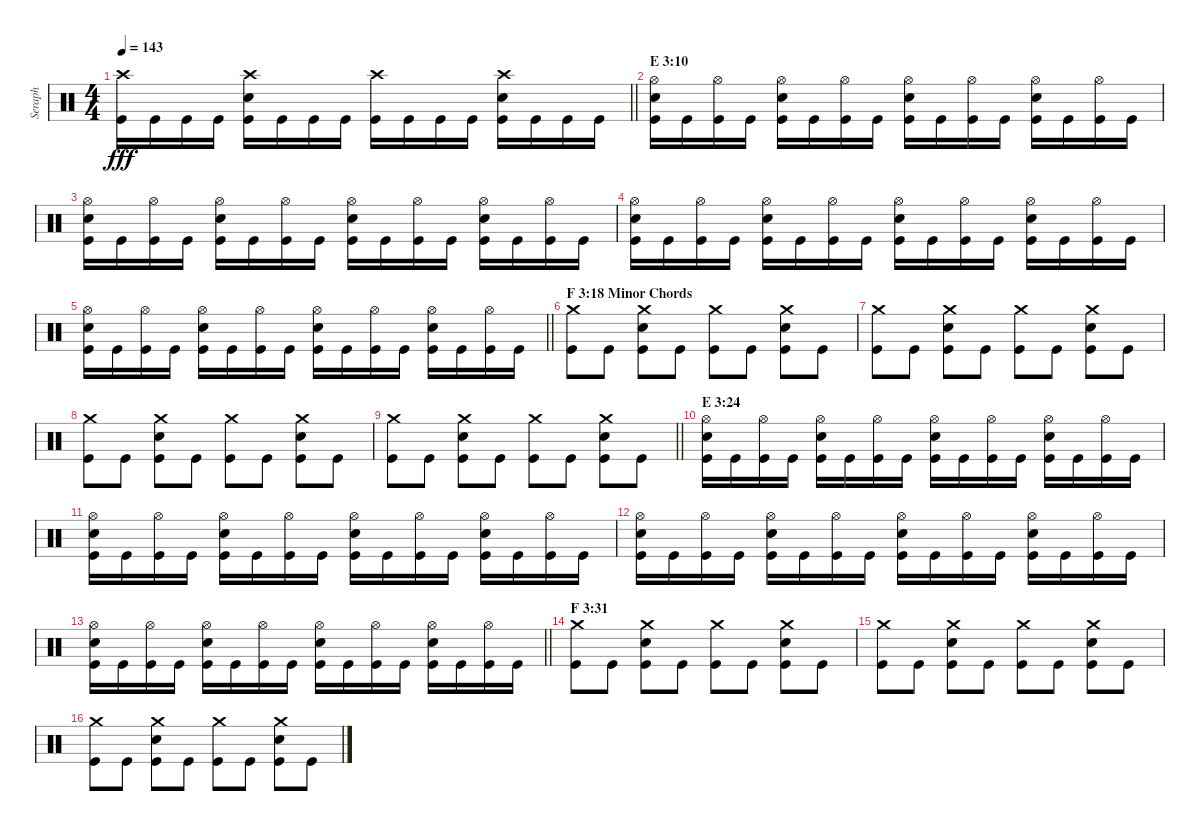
\track ("Seraph" "Seraph") {instrument percussion}
\staff {score}
\articulation defaults
\ts (4 4)
\tempo 143
\clef neutral
\barLineRight lightlight
\ks c
("Crash high (hit)" "Kick (hit)").16{dy fff} "Kick (hit)".16 "Kick (hit)".16 "Kick (hit)".16 ("Crash high (hit)" "Electric Snare (hit)" "Kick (hit)").16 "Kick (hit)".16 "Kick (hit)".16 "Kick (hit)".16 ("Crash high (hit)" "Kick (hit)").16 "Kick (hit)".16 "Kick (hit)".16 "Kick (hit)".16 ("Crash high (hit)" "Electric Snare (hit)" "Kick (hit)").16 "Kick (hit)".16 "Kick (hit)".16 "Kick (hit)".16 |
\section ("" "E 3:10")
("Hi-Hat (open)" "Electric Snare (hit)" "Kick (hit)").16 "Kick (hit)".16 ("Hi-Hat (open)" "Kick (hit)").16 "Kick (hit)".16 ("Hi-Hat (open)" "Electric Snare (hit)" "Kick (hit)").16 "Kick (hit)".16 ("Hi-Hat (open)" "Kick (hit)").16 "Kick (hit)".16 ("Hi-Hat (open)" "Electric Snare (hit)" "Kick (hit)").16 "Kick (hit)".16 ("Hi-Hat (open)" "Kick (hit)").16 "Kick (hit)".16 ("Hi-Hat (open)" "Electric Snare (hit)" "Kick (hit)").16 "Kick (hit)".16 ("Hi-Hat (open)" "Kick (hit)").16 "Kick (hit)".16 |
("Hi-Hat (open)" "Electric Snare (hit)" "Kick (hit)").16 "Kick (hit)".16 ("Hi-Hat (open)" "Kick (hit)").16 "Kick (hit)".16 ("Hi-Hat (open)" "Electric Snare (hit)" "Kick (hit)").16 "Kick (hit)".16 ("Hi-Hat (open)" "Kick (hit)").16 "Kick (hit)".16 ("Hi-Hat (open)" "Electric Snare (hit)" "Kick (hit)").16 "Kick (hit)".16 ("Hi-Hat (open)" "Kick (hit)").16 "Kick (hit)".16 ("Hi-Hat (open)" "Electric Snare (hit)" "Kick (hit)").16 "Kick (hit)".16 ("Hi-Hat (open)" "Kick (hit)").16 "Kick (hit)".16 |
("Hi-Hat (open)" "Electric Snare (hit)" "Kick (hit)").16 "Kick (hit)".16 ("Hi-Hat (open)" "Kick (hit)").16 "Kick (hit)".16 ("Hi-Hat (open)" "Electric Snare (hit)" "Kick (hit)").16 "Kick (hit)".16 ("Hi-Hat (open)" "Kick (hit)").16 "Kick (hit)".16 ("Hi-Hat (open)" "Electric Snare (hit)" "Kick (hit)").16 "Kick (hit)".16 ("Hi-Hat (open)" "Kick (hit)").16 "Kick (hit)".16 ("Hi-Hat (open)" "Electric Snare (hit)" "Kick (hit)").16 "Kick (hit)".16 ("Hi-Hat (open)" "Kick (hit)").16 "Kick (hit)".16 |
\barLineRight lightlight
("Hi-Hat (open)" "Electric Snare (hit)" "Kick (hit)").16 "Kick (hit)".16 ("Hi-Hat (open)" "Kick (hit)").16 "Kick (hit)".16 ("Hi-Hat (open)" "Electric Snare (hit)" "Kick (hit)").16 "Kick (hit)".16 ("Hi-Hat (open)" "Kick (hit)").16 "Kick (hit)".16 ("Hi-Hat (open)" "Electric Snare (hit)" "Kick (hit)").16 "Kick (hit)".16 ("Hi-Hat (open)" "Kick (hit)").16 "Kick (hit)".16 ("Hi-Hat (open)" "Electric Snare (hit)" "Kick (hit)").16 "Kick (hit)".16 ("Hi-Hat (open)" "Kick (hit)").16 "Kick (hit)".16 |
\section ("" "F 3:18 Minor Chords")
("Crash medium (hit)" "Kick (hit)").8 "Kick (hit)".8 ("Crash medium (hit)" "Electric Snare (hit)" "Kick (hit)").8 "Kick (hit)".8 ("Crash medium (hit)" "Kick (hit)").8 "Kick (hit)".8 ("Crash medium (hit)" "Electric Snare (hit)" "Kick (hit)").8 "Kick (hit)".8 |
("Crash medium (hit)" "Kick (hit)").8 "Kick (hit)".8 ("Crash medium (hit)" "Electric Snare (hit)" "Kick (hit)").8 "Kick (hit)".8 ("Crash medium (hit)" "Kick (hit)").8 "Kick (hit)".8 ("Crash medium (hit)" "Electric Snare (hit)" "Kick (hit)").8 "Kick (hit)".8 |
("Crash medium (hit)" "Kick (hit)").8 "Kick (hit)".8 ("Crash medium (hit)" "Electric Snare (hit)" "Kick (hit)").8 "Kick (hit)".8 ("Crash medium (hit)" "Kick (hit)").8 "Kick (hit)".8 ("Crash medium (hit)" "Electric Snare (hit)" "Kick (hit)").8 "Kick (hit)".8 |
\barLineRight lightlight
("Crash medium (hit)" "Kick (hit)").8 "Kick (hit)".8 ("Crash medium (hit)" "Electric Snare (hit)" "Kick (hit)").8 "Kick (hit)".8 ("Crash medium (hit)" "Kick (hit)").8 "Kick (hit)".8 ("Crash medium (hit)" "Electric Snare (hit)" "Kick (hit)").8 "Kick (hit)".8 |
\section ("" "E 3:24")
("Hi-Hat (open)" "Electric Snare (hit)" "Kick (hit)").16 "Kick (hit)".16 ("Hi-Hat (open)" "Kick (hit)").16 "Kick (hit)".16 ("Hi-Hat (open)" "Electric Snare (hit)" "Kick (hit)").16 "Kick (hit)".16 ("Hi-Hat (open)" "Kick (hit)").16 "Kick (hit)".16 ("Hi-Hat (open)" "Electric Snare (hit)" "Kick (hit)").16 "Kick (hit)".16 ("Hi-Hat (open)" "Kick (hit)").16 "Kick (hit)".16 ("Hi-Hat (open)" "Electric Snare (hit)" "Kick (hit)").16 "Kick (hit)".16 ("Hi-Hat (open)" "Kick (hit)").16 "Kick (hit)".16 |
("Hi-Hat (open)" "Electric Snare (hit)" "Kick (hit)").16 "Kick (hit)".16 ("Hi-Hat (open)" "Kick (hit)").16 "Kick (hit)".16 ("Hi-Hat (open)" "Electric Snare (hit)" "Kick (hit)").16 "Kick (hit)".16 ("Hi-Hat (open)" "Kick (hit)").16 "Kick (hit)".16 ("Hi-Hat (open)" "Electric Snare (hit)" "Kick (hit)").16 "Kick (hit)".16 ("Hi-Hat (open)" "Kick (hit)").16 "Kick (hit)".16 ("Hi-Hat (open)" "Electric Snare (hit)" "Kick (hit)").16 "Kick (hit)".16 ("Hi-Hat (open)" "Kick (hit)").16 "Kick (hit)".16 |
("Hi-Hat (open)" "Electric Snare (hit)" "Kick (hit)").16 "Kick (hit)".16 ("Hi-Hat (open)" "Kick (hit)").16 "Kick (hit)".16 ("Hi-Hat (open)" "Electric Snare (hit)" "Kick (hit)").16 "Kick (hit)".16 ("Hi-Hat (open)" "Kick (hit)").16 "Kick (hit)".16 ("Hi-Hat (open)" "Electric Snare (hit)" "Kick (hit)").16 "Kick (hit)".16 ("Hi-Hat (open)" "Kick (hit)").16 "Kick (hit)".16 ("Hi-Hat (open)" "Electric Snare (hit)" "Kick (hit)").16 "Kick (hit)".16 ("Hi-Hat (open)" "Kick (hit)").16 "Kick (hit)".16 |
\barLineRight lightlight
("Hi-Hat (open)" "Electric Snare (hit)" "Kick (hit)").16 "Kick (hit)".16 ("Hi-Hat (open)" "Kick (hit)").16 "Kick (hit)".16 ("Hi-Hat (open)" "Electric Snare (hit)" "Kick (hit)").16 "Kick (hit)".16 ("Hi-Hat (open)" "Kick (hit)").16 "Kick (hit)".16 ("Hi-Hat (open)" "Electric Snare (hit)" "Kick (hit)").16 "Kick (hit)".16 ("Hi-Hat (open)" "Kick (hit)").16 "Kick (hit)".16 ("Hi-Hat (open)" "Electric Snare (hit)" "Kick (hit)").16 "Kick (hit)".16 ("Hi-Hat (open)" "Kick (hit)").16 "Kick (hit)".16 |
\section ("" "F 3:31")
("Crash medium (hit)" "Kick (hit)").8 "Kick (hit)".8 ("Crash medium (hit)" "Electric Snare (hit)" "Kick (hit)").8 "Kick (hit)".8 ("Crash medium (hit)" "Kick (hit)").8 "Kick (hit)".8 ("Crash medium (hit)" "Electric Snare (hit)" "Kick (hit)").8 "Kick (hit)".8 |
("Crash medium (hit)" "Kick (hit)").8 "Kick (hit)".8 ("Crash medium (hit)" "Electric Snare (hit)" "Kick (hit)").8 "Kick (hit)".8 ("Crash medium (hit)" "Kick (hit)").8 "Kick (hit)".8 ("Crash medium (hit)" "Electric Snare (hit)" "Kick (hit)").8 "Kick (hit)".8 |
("Crash medium (hit)" "Kick (hit)").8 "Kick (hit)".8 ("Crash medium (hit)" "Electric Snare (hit)" "Kick (hit)").8 "Kick (hit)".8 ("Crash medium (hit)" "Kick (hit)").8 "Kick (hit)".8 ("Crash medium (hit)" "Electric Snare (hit)" "Kick (hit)").8 "Kick (hit)".8
